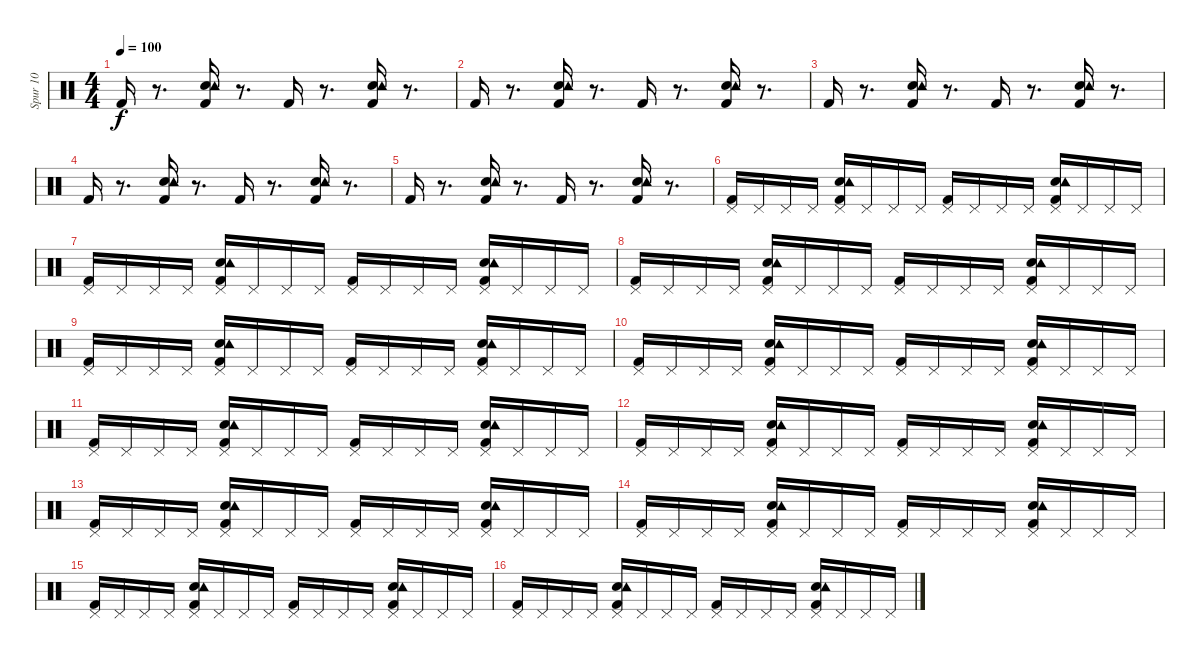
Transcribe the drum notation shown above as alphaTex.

\track ("Spur 10" "Spur 10") {instrument percussion}
\staff {score}
\articulation defaults
\ts (4 4)
\tempo 100
\clef neutral
\ks c "Kick (hit) 2".16{dy f}
r.8{d} ("Snare (hit) 2" "Kick (hit) 2" "Tambourine (hit)").16 r.8{d} "Kick (hit) 2".16 r.8{d} ("Kick (hit) 2" "Snare (hit) 2" "Tambourine (hit)").16 r.8{d} |
"Kick (hit) 2".16 r.8{d} ("Kick (hit) 2" "Snare (hit) 2" "Tambourine (hit)").16 r.8{d} "Kick (hit) 2".16 r.8{d} ("Snare (hit) 2" "Kick (hit) 2" "Tambourine (hit)").16 r.8{d} |
"Kick (hit) 2".16 r.8{d} ("Kick (hit) 2" "Snare (hit) 2" "Tambourine (hit)").16 r.8{d} "Kick (hit) 2".16 r.8{d} ("Kick (hit) 2" "Snare (hit) 2" "Tambourine (hit)").16 r.8{d} |
"Kick (hit) 2".16 r.8{d} ("Snare (hit) 2" "Kick (hit) 2" "Tambourine (hit)").16 r.8{d} "Kick (hit) 2".16 r.8{d} ("Kick (hit) 2" "Snare (hit) 2" "Tambourine (hit)").16 r.8{d} |
"Kick (hit) 2".16 r.8{d} ("Snare (hit) 2" "Kick (hit) 2" "Tambourine (hit)").16 r.8{d} "Kick (hit) 2".16 r.8{d} ("Kick (hit) 2" "Snare (hit) 2" "Tambourine (hit)").16 r.8{d} |
("Kick (hit) 2" "Pedal Hi-Hat (hit)").16 "Pedal Hi-Hat (hit)".16 "Pedal Hi-Hat (hit)".16 "Pedal Hi-Hat (hit)".16 ("Kick (hit) 2" "Snare (hit) 2" "Tambourine (hit)" "Pedal Hi-Hat (hit)").16 "Pedal Hi-Hat (hit)".16 "Pedal Hi-Hat (hit)".16 "Pedal Hi-Hat (hit)".16 ("Kick (hit) 2" "Pedal Hi-Hat (hit)").16 "Pedal Hi-Hat (hit)".16 "Pedal Hi-Hat (hit)".16 "Pedal Hi-Hat (hit)".16 ("Snare (hit) 2" "Kick (hit) 2" "Tambourine (hit)" "Pedal Hi-Hat (hit)").16 "Pedal Hi-Hat (hit)".16 "Pedal Hi-Hat (hit)".16 "Pedal Hi-Hat (hit)".16 |
("Kick (hit) 2" "Pedal Hi-Hat (hit)").16 "Pedal Hi-Hat (hit)".16 "Pedal Hi-Hat (hit)".16 "Pedal Hi-Hat (hit)".16 ("Kick (hit) 2" "Snare (hit) 2" "Tambourine (hit)" "Pedal Hi-Hat (hit)").16 "Pedal Hi-Hat (hit)".16 "Pedal Hi-Hat (hit)".16 "Pedal Hi-Hat (hit)".16 ("Kick (hit) 2" "Pedal Hi-Hat (hit)").16 "Pedal Hi-Hat (hit)".16 "Pedal Hi-Hat (hit)".16 "Pedal Hi-Hat (hit)".16 ("Kick (hit) 2" "Snare (hit) 2" "Tambourine (hit)" "Pedal Hi-Hat (hit)").16 "Pedal Hi-Hat (hit)".16 "Pedal Hi-Hat (hit)".16 "Pedal Hi-Hat (hit)".16 |
("Kick (hit) 2" "Pedal Hi-Hat (hit)").16 "Pedal Hi-Hat (hit)".16 "Pedal Hi-Hat (hit)".16 "Pedal Hi-Hat (hit)".16 ("Snare (hit) 2" "Kick (hit) 2" "Tambourine (hit)" "Pedal Hi-Hat (hit)").16 "Pedal Hi-Hat (hit)".16 "Pedal Hi-Hat (hit)".16 "Pedal Hi-Hat (hit)".16 ("Kick (hit) 2" "Pedal Hi-Hat (hit)").16 "Pedal Hi-Hat (hit)".16 "Pedal Hi-Hat (hit)".16 "Pedal Hi-Hat (hit)".16 ("Kick (hit) 2" "Snare (hit) 2" "Tambourine (hit)" "Pedal Hi-Hat (hit)").16 "Pedal Hi-Hat (hit)".16 "Pedal Hi-Hat (hit)".16 "Pedal Hi-Hat (hit)".16 |
("Kick (hit) 2" "Pedal Hi-Hat (hit)").16 "Pedal Hi-Hat (hit)".16 "Pedal Hi-Hat (hit)".16 "Pedal Hi-Hat (hit)".16 ("Snare (hit) 2" "Kick (hit) 2" "Tambourine (hit)" "Pedal Hi-Hat (hit)").16 "Pedal Hi-Hat (hit)".16 "Pedal Hi-Hat (hit)".16 "Pedal Hi-Hat (hit)".16 ("Kick (hit) 2" "Pedal Hi-Hat (hit)").16 "Pedal Hi-Hat (hit)".16 "Pedal Hi-Hat (hit)".16 "Pedal Hi-Hat (hit)".16 ("Kick (hit) 2" "Snare (hit) 2" "Tambourine (hit)" "Pedal Hi-Hat (hit)").16 "Pedal Hi-Hat (hit)".16 "Pedal Hi-Hat (hit)".16 "Pedal Hi-Hat (hit)".16 |
("Kick (hit) 2" "Pedal Hi-Hat (hit)").16 "Pedal Hi-Hat (hit)".16 "Pedal Hi-Hat (hit)".16 "Pedal Hi-Hat (hit)".16 ("Kick (hit) 2" "Snare (hit) 2" "Tambourine (hit)" "Pedal Hi-Hat (hit)").16 "Pedal Hi-Hat (hit)".16 "Pedal Hi-Hat (hit)".16 "Pedal Hi-Hat (hit)".16 ("Kick (hit) 2" "Pedal Hi-Hat (hit)").16 "Pedal Hi-Hat (hit)".16 "Pedal Hi-Hat (hit)".16 "Pedal Hi-Hat (hit)".16 ("Snare (hit) 2" "Kick (hit) 2" "Tambourine (hit)" "Pedal Hi-Hat (hit)").16 "Pedal Hi-Hat (hit)".16 "Pedal Hi-Hat (hit)".16 "Pedal Hi-Hat (hit)".16 |
("Kick (hit) 2" "Pedal Hi-Hat (hit)").16 "Pedal Hi-Hat (hit)".16 "Pedal Hi-Hat (hit)".16 "Pedal Hi-Hat (hit)".16 ("Kick (hit) 2" "Snare (hit) 2" "Tambourine (hit)" "Pedal Hi-Hat (hit)").16 "Pedal Hi-Hat (hit)".16 "Pedal Hi-Hat (hit)".16 "Pedal Hi-Hat (hit)".16 ("Kick (hit) 2" "Pedal Hi-Hat (hit)").16 "Pedal Hi-Hat (hit)".16 "Pedal Hi-Hat (hit)".16 "Pedal Hi-Hat (hit)".16 ("Kick (hit) 2" "Snare (hit) 2" "Tambourine (hit)" "Pedal Hi-Hat (hit)").16 "Pedal Hi-Hat (hit)".16 "Pedal Hi-Hat (hit)".16 "Pedal Hi-Hat (hit)".16 |
("Kick (hit) 2" "Pedal Hi-Hat (hit)").16 "Pedal Hi-Hat (hit)".16 "Pedal Hi-Hat (hit)".16 "Pedal Hi-Hat (hit)".16 ("Snare (hit) 2" "Kick (hit) 2" "Tambourine (hit)" "Pedal Hi-Hat (hit)").16 "Pedal Hi-Hat (hit)".16 "Pedal Hi-Hat (hit)".16 "Pedal Hi-Hat (hit)".16 ("Kick (hit) 2" "Pedal Hi-Hat (hit)").16 "Pedal Hi-Hat (hit)".16 "Pedal Hi-Hat (hit)".16 "Pedal Hi-Hat (hit)".16 ("Kick (hit) 2" "Snare (hit) 2" "Tambourine (hit)" "Pedal Hi-Hat (hit)").16 "Pedal Hi-Hat (hit)".16 "Pedal Hi-Hat (hit)".16 "Pedal Hi-Hat (hit)".16 |
("Kick (hit) 2" "Pedal Hi-Hat (hit)").16 "Pedal Hi-Hat (hit)".16 "Pedal Hi-Hat (hit)".16 "Pedal Hi-Hat (hit)".16 ("Snare (hit) 2" "Kick (hit) 2" "Tambourine (hit)" "Pedal Hi-Hat (hit)").16 "Pedal Hi-Hat (hit)".16 "Pedal Hi-Hat (hit)".16 "Pedal Hi-Hat (hit)".16 ("Kick (hit) 2" "Pedal Hi-Hat (hit)").16 "Pedal Hi-Hat (hit)".16 "Pedal Hi-Hat (hit)".16 "Pedal Hi-Hat (hit)".16 ("Kick (hit) 2" "Snare (hit) 2" "Tambourine (hit)" "Pedal Hi-Hat (hit)").16 "Pedal Hi-Hat (hit)".16 "Pedal Hi-Hat (hit)".16 "Pedal Hi-Hat (hit)".16 |
("Kick (hit) 2" "Pedal Hi-Hat (hit)").16 "Pedal Hi-Hat (hit)".16 "Pedal Hi-Hat (hit)".16 "Pedal Hi-Hat (hit)".16 ("Kick (hit) 2" "Snare (hit) 2" "Tambourine (hit)" "Pedal Hi-Hat (hit)").16 "Pedal Hi-Hat (hit)".16 "Pedal Hi-Hat (hit)".16 "Pedal Hi-Hat (hit)".16 ("Kick (hit) 2" "Pedal Hi-Hat (hit)").16 "Pedal Hi-Hat (hit)".16 "Pedal Hi-Hat (hit)".16 "Pedal Hi-Hat (hit)".16 ("Snare (hit) 2" "Kick (hit) 2" "Tambourine (hit)" "Pedal Hi-Hat (hit)").16 "Pedal Hi-Hat (hit)".16 "Pedal Hi-Hat (hit)".16 "Pedal Hi-Hat (hit)".16 |
("Kick (hit) 2" "Pedal Hi-Hat (hit)").16 "Pedal Hi-Hat (hit)".16 "Pedal Hi-Hat (hit)".16 "Pedal Hi-Hat (hit)".16 ("Kick (hit) 2" "Snare (hit) 2" "Tambourine (hit)" "Pedal Hi-Hat (hit)").16 "Pedal Hi-Hat (hit)".16 "Pedal Hi-Hat (hit)".16 "Pedal Hi-Hat (hit)".16 ("Kick (hit) 2" "Pedal Hi-Hat (hit)").16 "Pedal Hi-Hat (hit)".16 "Pedal Hi-Hat (hit)".16 "Pedal Hi-Hat (hit)".16 ("Kick (hit) 2" "Snare (hit) 2" "Tambourine (hit)" "Pedal Hi-Hat (hit)").16 "Pedal Hi-Hat (hit)".16 "Pedal Hi-Hat (hit)".16 "Pedal Hi-Hat (hit)".16 |
("Kick (hit) 2" "Pedal Hi-Hat (hit)").16 "Pedal Hi-Hat (hit)".16 "Pedal Hi-Hat (hit)".16 "Pedal Hi-Hat (hit)".16 ("Snare (hit) 2" "Kick (hit) 2" "Tambourine (hit)" "Pedal Hi-Hat (hit)").16 "Pedal Hi-Hat (hit)".16 "Pedal Hi-Hat (hit)".16 "Pedal Hi-Hat (hit)".16 ("Kick (hit) 2" "Pedal Hi-Hat (hit)").16 "Pedal Hi-Hat (hit)".16 "Pedal Hi-Hat (hit)".16 "Pedal Hi-Hat (hit)".16 ("Kick (hit) 2" "Snare (hit) 2" "Tambourine (hit)" "Pedal Hi-Hat (hit)").16 "Pedal Hi-Hat (hit)".16 "Pedal Hi-Hat (hit)".16 "Pedal Hi-Hat (hit)".16
